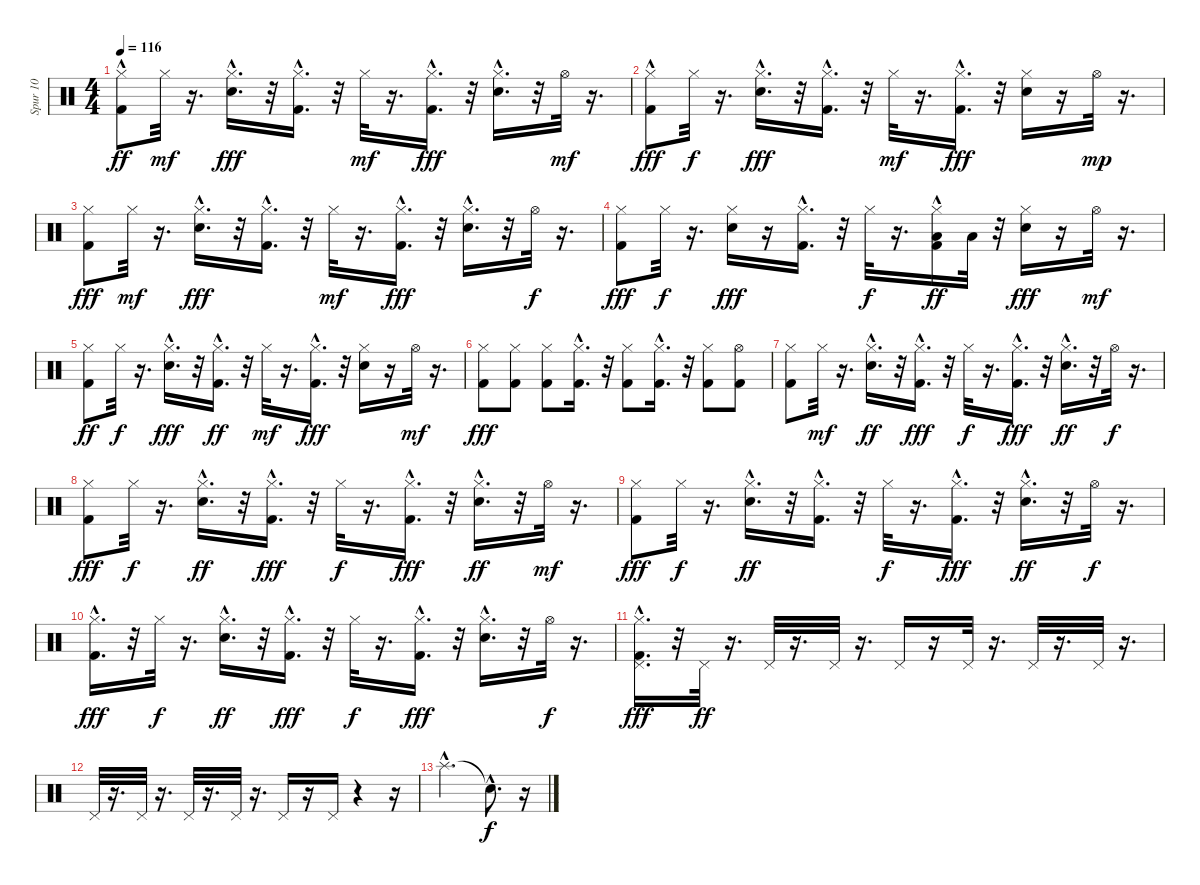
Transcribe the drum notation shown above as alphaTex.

\track ("Spur 10" "Spur 10") {instrument percussion}
\staff {score}
\articulation defaults
\ts (4 4)
\tempo 116
\clef neutral
\ks c
("Hi-Hat (closed)" "Kick (hit) 2"{hac}).8{dy ff} "Hi-Hat (closed)".32{dy mf} r.16{d} ("Hi-Hat (closed)" "Snare (hit) 2"{hac}).16{d dy fff} r.32 ("Hi-Hat (closed)" "Kick (hit) 2"{hac}).16{d} r.32 "Hi-Hat (closed)".32{dy mf} r.16{d} ("Hi-Hat (closed)" "Kick (hit) 2"{hac}).16{d dy fff} r.32 ("Hi-Hat (closed)" "Snare (hit) 2"{hac}).16{d} r.32 "Hi-Hat (open)".32{dy mf} r.16{d} |
("Hi-Hat (closed)" "Kick (hit) 2"{hac}).8{dy fff} "Hi-Hat (closed)".32{dy f} r.16{d} ("Hi-Hat (closed)" "Snare (hit) 2"{hac}).16{d dy fff} r.32 ("Hi-Hat (closed)" "Kick (hit) 2"{hac}).16{d} r.32 "Hi-Hat (closed)".32{dy mf} r.16{d} ("Hi-Hat (closed)" "Kick (hit) 2"{hac}).16{d dy fff} r.32 ("Hi-Hat (closed)" "Snare (hit) 2").16 r.16 "Hi-Hat (open)".32{dy mp} r.16{d} |
("Hi-Hat (closed)" "Kick (hit) 2").8{dy fff} "Hi-Hat (closed)".32{dy mf} r.16{d} ("Hi-Hat (closed)" "Snare (hit) 2"{hac}).16{d dy fff} r.32 ("Hi-Hat (closed)" "Kick (hit) 2"{hac}).16{d} r.32 "Hi-Hat (closed)".32{dy mf} r.16{d} ("Hi-Hat (closed)" "Kick (hit) 2"{hac}).16{d dy fff} r.32 ("Hi-Hat (closed)" "Snare (hit) 2"{hac}).16{d} r.32 "Hi-Hat (open)".32{dy f} r.16{d} |
("Hi-Hat (closed)" "Kick (hit) 2").8{dy fff} "Hi-Hat (closed)".32{dy f} r.16{d} ("Hi-Hat (closed)" "Snare (hit) 2").16{dy fff} r.16 ("Hi-Hat (closed)" "Kick (hit) 2"{hac}).16{d} r.32 "Hi-Hat (closed)".32{dy f} r.16{d} ("Hi-Hat (closed)" "Kick (hit) 2"{hac} "Low Tom (hit)").16{dy ff} "Low Tom (hit)".32 r.32 ("Hi-Hat (closed)" "Snare (hit) 2").16{dy fff} r.16 "Hi-Hat (open)".32{dy mf} r.16{d} |
("Hi-Hat (closed)" "Kick (hit) 2").8{dy ff} "Hi-Hat (closed)".32{dy f} r.16{d} ("Hi-Hat (closed)" "Snare (hit) 2"{hac}).16{d dy fff} r.32 ("Hi-Hat (closed)" "Kick (hit) 2"{hac}).16{d dy ff} r.32 "Hi-Hat (closed)".32{dy mf} r.16{d} ("Hi-Hat (closed)" "Kick (hit) 2"{hac}).16{d dy fff} r.32 ("Hi-Hat (closed)" "Snare (hit) 2").16 r.16 "Hi-Hat (open)".32{dy mf} r.16{d} |
("Hi-Hat (closed)" "Kick (hit) 2").8{dy fff} ("Hi-Hat (closed)" "Kick (hit) 2").8 ("Hi-Hat (closed)" "Kick (hit) 2").8 ("Hi-Hat (closed)" "Kick (hit) 2"{hac}).16{d} r.32 ("Hi-Hat (closed)" "Kick (hit) 2").8 ("Hi-Hat (closed)" "Kick (hit) 2"{hac}).16{d} r.32 ("Hi-Hat (closed)" "Kick (hit) 2").8 ("Hi-Hat (open)" "Kick (hit) 2").8 |
("Hi-Hat (closed)" "Kick (hit) 2").8 "Hi-Hat (closed)".32{dy mf} r.16{d} ("Hi-Hat (closed)" "Snare (hit) 2"{hac}).16{d dy ff} r.32 ("Hi-Hat (closed)" "Kick (hit) 2"{hac}).16{d dy fff} r.32 "Hi-Hat (closed)".32{dy f} r.16{d} ("Hi-Hat (closed)" "Kick (hit) 2"{hac}).16{d dy fff} r.32 ("Hi-Hat (closed)" "Snare (hit) 2"{hac}).16{d dy ff} r.32 "Hi-Hat (open)".32{dy f} r.16{d} |
("Hi-Hat (closed)" "Kick (hit) 2").8{dy fff} "Hi-Hat (closed)".32{dy f} r.16{d} ("Hi-Hat (closed)" "Snare (hit) 2"{hac}).16{d dy ff} r.32 ("Hi-Hat (closed)" "Kick (hit) 2"{hac}).16{d dy fff} r.32 "Hi-Hat (closed)".32{dy f} r.16{d} ("Hi-Hat (closed)" "Kick (hit) 2"{hac}).16{d dy fff} r.32 ("Hi-Hat (closed)" "Snare (hit) 2"{hac}).16{d dy ff} r.32 "Hi-Hat (open)".32{dy mf} r.16{d} |
("Hi-Hat (closed)" "Kick (hit) 2").8{dy fff} "Hi-Hat (closed)".32{dy f} r.16{d} ("Hi-Hat (closed)" "Snare (hit) 2"{hac}).16{d dy ff} r.32 ("Hi-Hat (closed)" "Kick (hit) 2"{hac}).16{d} r.32 "Hi-Hat (closed)".32{dy f} r.16{d} ("Hi-Hat (closed)" "Kick (hit) 2"{hac}).16{d dy fff} r.32 ("Hi-Hat (closed)" "Snare (hit) 2"{hac}).16{d dy ff} r.32 "Hi-Hat (open)".32{dy f} r.16{d} |
("Hi-Hat (closed)" "Kick (hit) 2"{hac}).16{d dy fff} r.32 "Hi-Hat (closed)".32{dy f} r.16{d} ("Hi-Hat (closed)" "Snare (hit) 2"{hac}).16{d dy ff} r.32 ("Hi-Hat (closed)" "Kick (hit) 2"{hac}).16{d dy fff} r.32 "Hi-Hat (closed)".32{dy f} r.16{d} ("Hi-Hat (closed)" "Kick (hit) 2"{hac}).16{d dy fff} r.32 ("Hi-Hat (closed)" "Snare (hit) 2"{hac}).16{d} r.32 "Hi-Hat (open)".32{dy f} r.16{d} |
("Hi-Hat (closed)" "Pedal Hi-Hat (hit)" "Kick (hit) 2"{hac}).16{d dy fff} r.32 "Pedal Hi-Hat (hit)".32{dy ff} r.16{d} "Pedal Hi-Hat (hit)".32 r.16{d} "Pedal Hi-Hat (hit)".32 r.16{d} "Pedal Hi-Hat (hit)".16 r.16 "Pedal Hi-Hat (hit)".32 r.16{d} "Pedal Hi-Hat (hit)".32 r.16{d} "Pedal Hi-Hat (hit)".32 r.16{d} |
"Pedal Hi-Hat (hit)".32 r.16{d} "Pedal Hi-Hat (hit)".32 r.16{d} "Pedal Hi-Hat (hit)".32 r.16{d} "Pedal Hi-Hat (hit)".32 r.16{d} "Pedal Hi-Hat (hit)".16 r.16 "Pedal Hi-Hat (hit)".16 r.4 r.16 |
"Splash (hit)"{hac}.2{d} "Snare (hit)"{hac t}.8{d dy f} r.16
